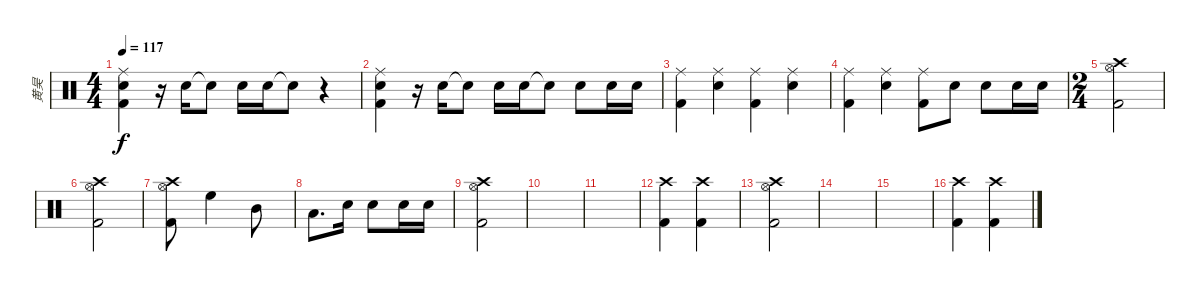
\track ("黄昊" "黄昊") {instrument percussion}
\staff {score}
\articulation defaults
\ts (4 4)
\tempo 117
\clef neutral
\ks c
("Ride (middle)" "Snare (hit) 2" "Kick (hit) 2").4{dy f} r.16 "Snare (hit) 2".16 "Snare (hit)"{t}.8 "Snare (hit) 2".16 "Snare (hit) 2".16 "Snare (hit)"{t}.8 r.4 |
("Ride (middle)" "Snare (hit) 2" "Kick (hit) 2").4 r.16 "Snare (hit) 2".16 "Snare (hit)"{t}.8 "Snare (hit) 2".16 "Snare (hit) 2".16 "Snare (hit)"{t}.8 "Snare (hit) 2".8 "Snare (hit) 2".16 "Snare (hit) 2".16 |
("Ride (middle)" "Kick (hit) 2").4 ("Ride (middle)" "Snare (hit) 2").4 ("Ride (middle)" "Kick (hit) 2").4 ("Ride (middle)" "Snare (hit) 2").4 |
("Ride (middle)" "Kick (hit) 2").4 ("Ride (middle)" "Snare (hit) 2").4 ("Ride (middle)" "Kick (hit) 2").8 "Snare (hit) 2".8 "Snare (hit) 2".8 "Snare (hit) 2".16 "Snare (hit) 2".16 |
\ts (2 4)
("Hi-Hat (open)" "Crash high (hit)" "Kick (hit) 2").2 |
("Hi-Hat (open)" "Crash high (hit)" "Kick (hit) 2").2 |
("Hi-Hat (open)" "Crash high (hit)" "Kick (hit) 2").8 "High Floor Tom (hit)".4 "Mid Tom (hit)".8 |
"Low Tom (hit)".8{d} "Snare (hit) 2".16 "Snare (hit) 2".8 "Snare (hit) 2".16 "Snare (hit) 2".16 |
("Crash high (hit)" "Hi-Hat (open)" "Kick (hit) 2").2 |
|
|
("Crash high (hit)" "Kick (hit) 2").4 ("Crash high (hit)" "Kick (hit) 2").4 |
("Crash high (hit)" "Hi-Hat (open)" "Kick (hit) 2").2 |
|
|
("Crash high (hit)" "Kick (hit) 2").4 ("Crash high (hit)" "Kick (hit) 2").4
